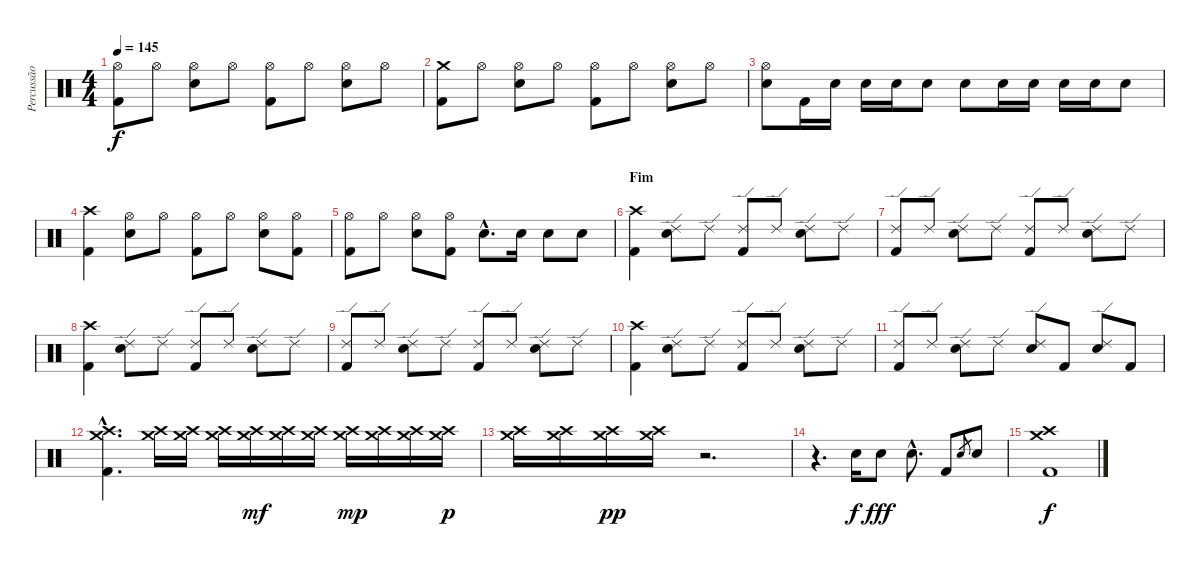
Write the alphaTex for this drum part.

\track ("Percussão" "Percussão") {instrument percussion}
\staff {score}
\articulation defaults
\ts (4 4)
\tempo 145
\clef neutral
\ks c
("Hi-Hat (open)" "Kick (hit) 2").8{dy f} "Hi-Hat (open)".8 ("Hi-Hat (open)" "Electric Snare (hit)").8 "Hi-Hat (open)".8 ("Hi-Hat (open)" "Kick (hit) 2").8 "Hi-Hat (open)".8 ("Hi-Hat (open)" "Electric Snare (hit)").8 "Hi-Hat (open)".8 |
("Crash medium (hit)" "Kick (hit) 2").8 "Hi-Hat (open)".8 ("Hi-Hat (open)" "Electric Snare (hit)").8 "Hi-Hat (open)".8 ("Hi-Hat (open)" "Kick (hit) 2").8 "Hi-Hat (open)".8 ("Hi-Hat (open)" "Electric Snare (hit)").8 "Hi-Hat (open)".8 |
("Hi-Hat (open)" "Electric Snare (hit)").8 "Kick (hit) 2".16 "Electric Snare (hit)".16 "Electric Snare (hit)".16 "Electric Snare (hit)".16 "Electric Snare (hit)".8 "Electric Snare (hit)".8 "Electric Snare (hit)".16 "Electric Snare (hit)".16 "Electric Snare (hit)".16 "Electric Snare (hit)".16 "Electric Snare (hit)".8 |
("Crash high (hit)" "Kick (hit) 2").4 ("Hi-Hat (open)" "Electric Snare (hit)").8 "Hi-Hat (open)".8 ("Hi-Hat (open)" "Kick (hit) 2").8 "Hi-Hat (open)".8 ("Hi-Hat (open)" "Electric Snare (hit)").8 ("Hi-Hat (open)" "Kick (hit) 2").8 |
("Hi-Hat (open)" "Kick (hit) 2").8 "Hi-Hat (open)".8 ("Hi-Hat (open)" "Electric Snare (hit)").8 ("Hi-Hat (open)" "Kick (hit) 2").8 "Electric Snare (hit)"{hac}.8{d} "Electric Snare (hit)".16 "Electric Snare (hit)".8 "Electric Snare (hit)".8 |
\section ("" "Fim")
("Crash high (hit)" "Kick (hit) 2").4 ("Ride (edge) 2" "Electric Snare (hit)").8 "Ride (edge) 2".8 ("Ride (edge) 2" "Kick (hit) 2").8 "Ride (edge) 2".8 ("Ride (edge) 2" "Electric Snare (hit)").8 "Ride (edge) 2".8 |
("Ride (edge) 2" "Kick (hit) 2").8 "Ride (edge) 2".8 ("Ride (edge) 2" "Electric Snare (hit)").8 "Ride (edge) 2".8 ("Ride (edge) 2" "Kick (hit) 2").8 "Ride (edge) 2".8 ("Ride (edge) 2" "Electric Snare (hit)").8 "Ride (edge) 2".8 |
("Crash high (hit)" "Kick (hit) 2").4 ("Ride (edge) 2" "Electric Snare (hit)").8 "Ride (edge) 2".8 ("Ride (edge) 2" "Kick (hit) 2").8 "Ride (edge) 2".8 ("Ride (edge) 2" "Electric Snare (hit)").8 "Ride (edge) 2".8 |
("Ride (edge) 2" "Kick (hit) 2").8 "Ride (edge) 2".8 ("Ride (edge) 2" "Electric Snare (hit)").8 "Ride (edge) 2".8 ("Ride (edge) 2" "Kick (hit) 2").8 "Ride (edge) 2".8 ("Ride (edge) 2" "Electric Snare (hit)").8 "Ride (edge) 2".8 |
("Crash high (hit)" "Kick (hit) 2").4 ("Ride (edge) 2" "Electric Snare (hit)").8 "Ride (edge) 2".8 ("Ride (edge) 2" "Kick (hit) 2").8 "Ride (edge) 2".8 ("Ride (edge) 2" "Electric Snare (hit)").8 "Ride (edge) 2".8 |
("Ride (edge) 2" "Kick (hit) 2").8 "Ride (edge) 2".8 ("Ride (edge) 2" "Electric Snare (hit)").8 "Ride (edge) 2".8 ("Ride (edge) 2" "Electric Snare (hit)").8 "Kick (hit) 2".8 ("Ride (edge) 2" "Electric Snare (hit)").8 "Kick (hit) 2".8 |
("Crash high (hit)"{hac} "Crash medium (hit)"{hac} "Kick (hit) 2"{hac}).4{d} ("Crash high (hit)" "Crash medium (hit)").16 ("Crash high (hit)" "Crash medium (hit)").16 ("Crash high (hit)" "Crash medium (hit)").16 ("Crash high (hit)" "Crash medium (hit)").16{dy mf} ("Crash high (hit)" "Crash medium (hit)").16 ("Crash high (hit)" "Crash medium (hit)").16 ("Crash high (hit)" "Crash medium (hit)").16{dy mp} ("Crash high (hit)" "Crash medium (hit)").16 ("Crash high (hit)" "Crash medium (hit)").16 ("Crash high (hit)" "Crash medium (hit)").16{dy p} |
("Crash high (hit)" "Crash medium (hit)").16 ("Crash high (hit)" "Crash medium (hit)").16 ("Crash high (hit)" "Crash medium (hit)").16{dy pp} ("Crash high (hit)" "Crash medium (hit)").16 r.2{d} |
r.4{d} "Electric Snare (hit)".16{dy f} "Electric Snare (hit)".8{dy fff} "Electric Snare (hit)"{hac}.8{d} "Kick (hit) 2".8 "Electric Snare (hit)".8{gr} "Electric Snare (hit)".8 |
("Crash high (hit)" "Crash medium (hit)" "Kick (hit) 2").1{dy f}
